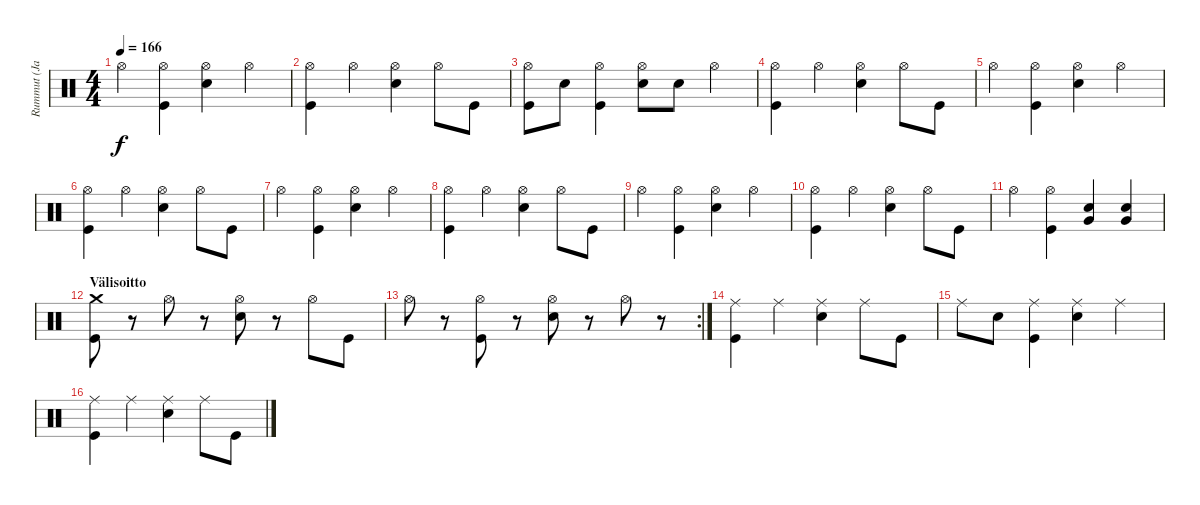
\track ("Rummut (Janne)" "Rummut (Ja") {instrument percussion}
\staff {score}
\articulation defaults
\ts (4 4)
\tempo 166
\clef neutral
\ks c "Hi-Hat (open)".4{dy f}
("Hi-Hat (open)" "Kick (hit)").4 ("Hi-Hat (open)" "Snare (hit) 2").4 "Hi-Hat (open)".4 |
("Hi-Hat (open)" "Kick (hit)").4 "Hi-Hat (open)".4 ("Hi-Hat (open)" "Snare (hit) 2").4 "Hi-Hat (open)".8 "Kick (hit)".8 |
("Hi-Hat (open)" "Kick (hit)").8 "Snare (hit) 2".8 ("Hi-Hat (open)" "Kick (hit)").4 ("Hi-Hat (open)" "Snare (hit) 2").8 "Snare (hit) 2".8 "Hi-Hat (open)".4 |
("Hi-Hat (open)" "Kick (hit)").4 "Hi-Hat (open)".4 ("Hi-Hat (open)" "Snare (hit) 2").4 "Hi-Hat (open)".8 "Kick (hit)".8 |
"Hi-Hat (open)".4 ("Hi-Hat (open)" "Kick (hit)").4 ("Hi-Hat (open)" "Snare (hit) 2").4 "Hi-Hat (open)".4 |
("Hi-Hat (open)" "Kick (hit)").4 "Hi-Hat (open)".4 ("Hi-Hat (open)" "Snare (hit) 2").4 "Hi-Hat (open)".8 "Kick (hit)".8 |
"Hi-Hat (open)".4 ("Hi-Hat (open)" "Kick (hit)").4 ("Hi-Hat (open)" "Snare (hit) 2").4 "Hi-Hat (open)".4 |
("Hi-Hat (open)" "Kick (hit)").4 "Hi-Hat (open)".4 ("Hi-Hat (open)" "Snare (hit) 2").4 "Hi-Hat (open)".8 "Kick (hit)".8 |
"Hi-Hat (open)".4 ("Hi-Hat (open)" "Kick (hit)").4 ("Hi-Hat (open)" "Snare (hit) 2").4 "Hi-Hat (open)".4 |
("Hi-Hat (open)" "Kick (hit)").4 "Hi-Hat (open)".4 ("Hi-Hat (open)" "Snare (hit) 2").4 "Hi-Hat (open)".8 "Kick (hit)".8 |
"Hi-Hat (open)".4 ("Hi-Hat (open)" "Kick (hit)").4 ("Very Low Tom (hit)" "Snare (hit) 2").4 ("Very Low Tom (hit)" "Snare (hit) 2").4 |
\section ("" "Välisoitto")
("Crash medium (hit)" "Kick (hit)").8 r.8 "Hi-Hat (open)".8 r.8 ("Hi-Hat (open)" "Snare (hit) 2").8 r.8 "Hi-Hat (open)".8 "Kick (hit)".8 |
\rc 2 "Hi-Hat (open)".8
r.8 ("Hi-Hat (open)" "Kick (hit)").8 r.8 ("Hi-Hat (open)" "Snare (hit) 2").8 r.8 "Hi-Hat (open)".8 r.8 |
("Ride (middle)" "Kick (hit)").4 "Ride (middle)".4 ("Ride (middle)" "Snare (hit) 2").4 "Ride (middle)".8 "Kick (hit)".8 |
"Ride (middle)".8 "Snare (hit) 2".8 ("Ride (middle)" "Kick (hit)").4 ("Ride (middle)" "Snare (hit) 2").4 "Ride (middle)".4 |
("Ride (middle)" "Kick (hit)").4 "Ride (middle)".4 ("Ride (middle)" "Snare (hit) 2").4 "Ride (middle)".8 "Kick (hit)".8
